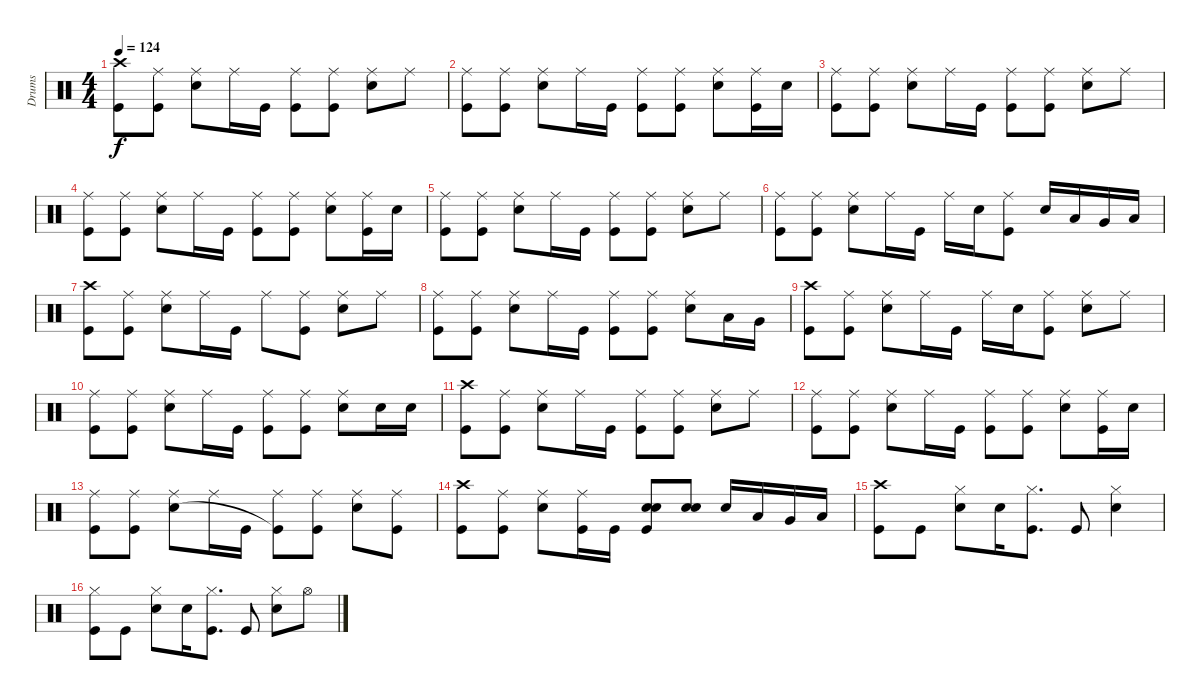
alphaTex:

\track ("Drums" "Drums") {instrument percussion}
\staff {score}
\articulation defaults
\ts (4 4)
\tempo 124
\clef neutral
\ks c
("Crash high (hit)" "Kick (hit)").8{dy f} ("Ride (middle)" "Kick (hit)").8 ("Ride (middle)" "Electric Snare (hit)").8 "Ride (middle)".16 "Kick (hit)".16 ("Ride (middle)" "Kick (hit)").8 ("Ride (middle)" "Kick (hit)").8 ("Ride (middle)" "Electric Snare (hit)").8 "Ride (middle)".8 |
("Ride (middle)" "Kick (hit)").8 ("Ride (middle)" "Kick (hit)").8 ("Ride (middle)" "Electric Snare (hit)").8 "Ride (middle)".16 "Kick (hit)".16 ("Ride (middle)" "Kick (hit)").8 ("Ride (middle)" "Kick (hit)").8 ("Ride (middle)" "Electric Snare (hit)").8 ("Ride (middle)" "Kick (hit)").16 "Electric Snare (hit)".16 |
("Ride (middle)" "Kick (hit)").8 ("Ride (middle)" "Kick (hit)").8 ("Ride (middle)" "Electric Snare (hit)").8 "Ride (middle)".16 "Kick (hit)".16 ("Ride (middle)" "Kick (hit)").8 ("Ride (middle)" "Kick (hit)").8 ("Ride (middle)" "Electric Snare (hit)").8 "Ride (middle)".8 |
("Ride (middle)" "Kick (hit)").8 ("Ride (middle)" "Kick (hit)").8 ("Ride (middle)" "Electric Snare (hit)").8 "Ride (middle)".16 "Kick (hit)".16 ("Ride (middle)" "Kick (hit)").8 ("Ride (middle)" "Kick (hit)").8 ("Ride (middle)" "Electric Snare (hit)").8 ("Ride (middle)" "Kick (hit)").16 "Electric Snare (hit)".16 |
("Ride (middle)" "Kick (hit)").8 ("Ride (middle)" "Kick (hit)").8 ("Ride (middle)" "Electric Snare (hit)").8 "Ride (middle)".16 "Kick (hit)".16 ("Ride (middle)" "Kick (hit)").8 ("Ride (middle)" "Kick (hit)").8 ("Ride (middle)" "Electric Snare (hit)").8 "Ride (middle)".8 |
("Ride (middle)" "Kick (hit)").8 ("Ride (middle)" "Kick (hit)").8 ("Ride (middle)" "Electric Snare (hit)").8 "Ride (middle)".16 "Kick (hit)".16 "Ride (middle)".16 "Electric Snare (hit)".16 ("Ride (middle)" "Kick (hit)").8 "Electric Snare (hit)".16 "Low Tom (hit)".16 "Very Low Tom (hit)".16 "Low Floor Tom (hit)".16 |
("Crash high (hit)" "Kick (hit)").8 ("Ride (middle)" "Kick (hit)").8 ("Ride (middle)" "Electric Snare (hit)").8 "Ride (middle)".16 "Kick (hit)".16 "Ride (middle)".8 ("Ride (middle)" "Kick (hit)").8 ("Ride (middle)" "Electric Snare (hit)").8 "Ride (middle)".8 |
("Ride (middle)" "Kick (hit)").8 ("Ride (middle)" "Kick (hit)").8 ("Ride (middle)" "Electric Snare (hit)").8 "Ride (middle)".16 "Kick (hit)".16 ("Ride (middle)" "Kick (hit)").8 ("Ride (middle)" "Kick (hit)").8 ("Ride (middle)" "Electric Snare (hit)").8 "Low Tom (hit)".16 "Very Low Tom (hit)".16 |
("Crash high (hit)" "Kick (hit)").8 ("Ride (middle)" "Kick (hit)").8 ("Ride (middle)" "Electric Snare (hit)").8 "Ride (middle)".16 "Kick (hit)".16 "Ride (middle)".16 "Electric Snare (hit)".16 ("Ride (middle)" "Kick (hit)").8 ("Ride (middle)" "Electric Snare (hit)").8 "Ride (middle)".8 |
("Ride (middle)" "Kick (hit)").8 ("Ride (middle)" "Kick (hit)").8 ("Ride (middle)" "Electric Snare (hit)").8 "Ride (middle)".16 "Kick (hit)".16 ("Ride (middle)" "Kick (hit)").8 ("Ride (middle)" "Kick (hit)").8 ("Ride (middle)" "Electric Snare (hit)").8 "Electric Snare (hit)".16 "Electric Snare (hit)".16 |
("Crash high (hit)" "Kick (hit)").8 ("Ride (middle)" "Kick (hit)").8 ("Ride (middle)" "Electric Snare (hit)").8 "Ride (middle)".16 "Kick (hit)".16 ("Ride (middle)" "Kick (hit)").8 ("Ride (middle)" "Kick (hit)").8 ("Ride (middle)" "Electric Snare (hit)").8 "Ride (middle)".8 |
("Ride (middle)" "Kick (hit)").8 ("Ride (middle)" "Kick (hit)").8 ("Ride (middle)" "Electric Snare (hit)").8 "Ride (middle)".16 "Kick (hit)".16 ("Ride (middle)" "Kick (hit)").8 ("Ride (middle)" "Kick (hit)").8 ("Ride (middle)" "Electric Snare (hit)").8 ("Ride (middle)" "Kick (hit)").16 "Electric Snare (hit)".16 |
("Ride (middle)" "Kick (hit)").8 ("Ride (middle)" "Kick (hit)").8 ("Ride (middle)" "Electric Snare (hit)").8 "Ride (middle)".16 "Kick (hit)".16 ("Ride (middle)" "Kick (hit)"{t}).8 ("Ride (middle)" "Kick (hit)").8 ("Ride (middle)" "Electric Snare (hit)").8 ("Ride (middle)" "Kick (hit)").8 |
("Crash high (hit)" "Kick (hit)").8 ("Ride (middle)" "Kick (hit)").8 ("Ride (middle)" "Electric Snare (hit)").8 ("Ride (middle)" "Kick (hit)").16 "Kick (hit)".16 ("Electric Snare (hit)" "Electric Snare (hit)" "Kick (hit)").8 ("Electric Snare (hit)" "Electric Snare (hit)").8 "Electric Snare (hit)".16 "Low Tom (hit)".16 "Very Low Tom (hit)".16 "Low Floor Tom (hit)".16 |
("Crash high (hit)" "Kick (hit)").8 "Kick (hit)".8 ("Hi-Hat (closed)" "Electric Snare (hit)").8 "Electric Snare (hit)".16 ("Hi-Hat (closed)" "Kick (hit)").8{d} "Kick (hit)".8 ("Hi-Hat (closed)" "Electric Snare (hit)").4 |
("Hi-Hat (closed)" "Kick (hit)").8 "Kick (hit)".8 ("Hi-Hat (closed)" "Electric Snare (hit)").8 "Electric Snare (hit)".16 ("Hi-Hat (closed)" "Kick (hit)").8{d} "Kick (hit)".8 ("Hi-Hat (closed)" "Electric Snare (hit)").8 "Hi-Hat (open)".8
